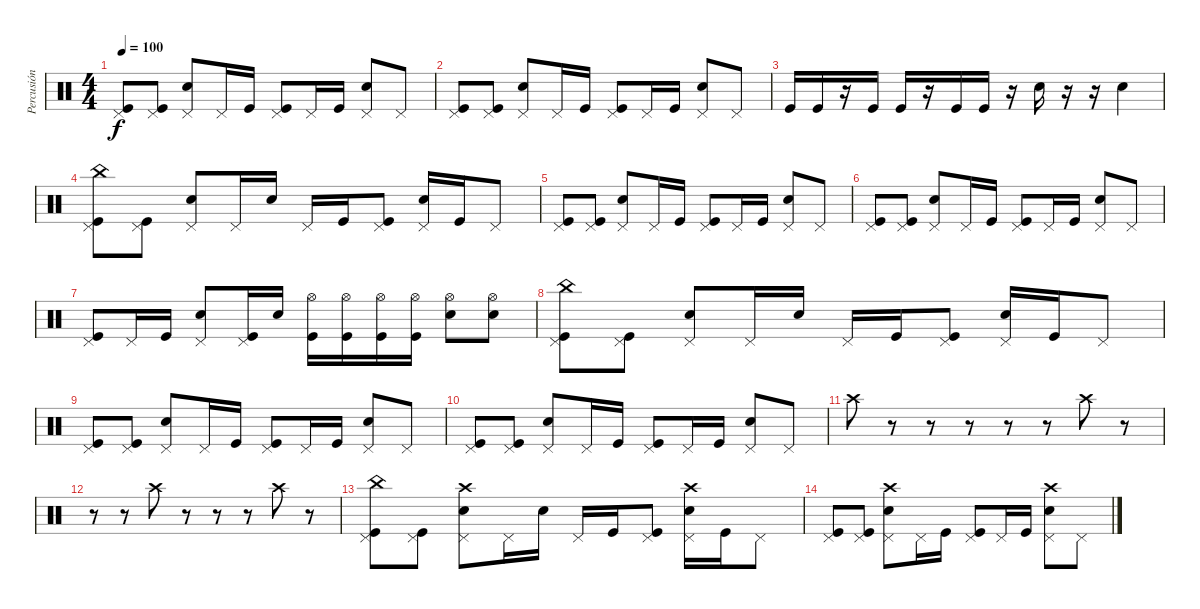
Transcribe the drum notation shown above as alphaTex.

\track ("Percusión" "Percusión") {instrument percussion}
\staff {score}
\articulation defaults
\ts (4 4)
\tempo 100
\clef neutral
\ks c
("Kick (hit)" "Pedal Hi-Hat (hit)").8{dy f} ("Kick (hit)" "Pedal Hi-Hat (hit)").8 ("Electric Snare (hit)" "Pedal Hi-Hat (hit)").8 "Pedal Hi-Hat (hit)".16 "Kick (hit)".16 ("Kick (hit)" "Pedal Hi-Hat (hit)").8 "Pedal Hi-Hat (hit)".16 "Kick (hit)".16 ("Electric Snare (hit)" "Pedal Hi-Hat (hit)").8 "Pedal Hi-Hat (hit)".8 |
("Kick (hit)" "Pedal Hi-Hat (hit)").8 ("Kick (hit)" "Pedal Hi-Hat (hit)").8 ("Electric Snare (hit)" "Pedal Hi-Hat (hit)").8 "Pedal Hi-Hat (hit)".16 "Kick (hit)".16 ("Kick (hit)" "Pedal Hi-Hat (hit)").8 "Pedal Hi-Hat (hit)".16 "Kick (hit)".16 ("Electric Snare (hit)" "Pedal Hi-Hat (hit)").8 "Pedal Hi-Hat (hit)".8 |
"Kick (hit)".16 "Kick (hit)".16 r.16 "Kick (hit)".16 "Kick (hit)".16 r.16 "Kick (hit)".16 "Kick (hit)".16 r.16 "Electric Snare (hit)".16 r.16 r.16 "Electric Snare (hit)".4 |
("Kick (hit)" "China (hit)" "Pedal Hi-Hat (hit)").8 ("Kick (hit)" "Pedal Hi-Hat (hit)").8 ("Electric Snare (hit)" "Pedal Hi-Hat (hit)").8 "Pedal Hi-Hat (hit)".16 "Electric Snare (hit)".16 "Pedal Hi-Hat (hit)".16 "Kick (hit)".16 ("Kick (hit)" "Pedal Hi-Hat (hit)").8 ("Electric Snare (hit)" "Pedal Hi-Hat (hit)").16 "Kick (hit)".16 "Pedal Hi-Hat (hit)".8 |
("Kick (hit)" "Pedal Hi-Hat (hit)").8 ("Kick (hit)" "Pedal Hi-Hat (hit)").8 ("Electric Snare (hit)" "Pedal Hi-Hat (hit)").8 "Pedal Hi-Hat (hit)".16 "Kick (hit)".16 ("Kick (hit)" "Pedal Hi-Hat (hit)").8 "Pedal Hi-Hat (hit)".16 "Kick (hit)".16 ("Electric Snare (hit)" "Pedal Hi-Hat (hit)").8 "Pedal Hi-Hat (hit)".8 |
("Kick (hit)" "Pedal Hi-Hat (hit)").8 ("Kick (hit)" "Pedal Hi-Hat (hit)").8 ("Electric Snare (hit)" "Pedal Hi-Hat (hit)").8 "Pedal Hi-Hat (hit)".16 "Kick (hit)".16 ("Kick (hit)" "Pedal Hi-Hat (hit)").8 "Pedal Hi-Hat (hit)".16 "Kick (hit)".16 ("Electric Snare (hit)" "Pedal Hi-Hat (hit)").8 "Pedal Hi-Hat (hit)".8 |
("Kick (hit)" "Pedal Hi-Hat (hit)").8 "Pedal Hi-Hat (hit)".16 "Kick (hit)".16 ("Electric Snare (hit)" "Pedal Hi-Hat (hit)").8 ("Kick (hit)" "Pedal Hi-Hat (hit)").16 "Electric Snare (hit)".16 ("Kick (hit)" "Hi-Hat (open)").16 ("Kick (hit)" "Hi-Hat (open)").16 ("Kick (hit)" "Hi-Hat (open)").16 ("Kick (hit)" "Hi-Hat (open)").16 ("Electric Snare (hit)" "Hi-Hat (open)").8 ("Electric Snare (hit)" "Hi-Hat (open)").8 |
("Kick (hit)" "China (hit)" "Pedal Hi-Hat (hit)").8 ("Kick (hit)" "Pedal Hi-Hat (hit)").8 ("Electric Snare (hit)" "Pedal Hi-Hat (hit)").8 "Pedal Hi-Hat (hit)".16 "Electric Snare (hit)".16 "Pedal Hi-Hat (hit)".16 "Kick (hit)".16 ("Kick (hit)" "Pedal Hi-Hat (hit)").8 ("Electric Snare (hit)" "Pedal Hi-Hat (hit)").16 "Kick (hit)".16 "Pedal Hi-Hat (hit)".8 |
("Kick (hit)" "Pedal Hi-Hat (hit)").8 ("Kick (hit)" "Pedal Hi-Hat (hit)").8 ("Electric Snare (hit)" "Pedal Hi-Hat (hit)").8 "Pedal Hi-Hat (hit)".16 "Kick (hit)".16 ("Kick (hit)" "Pedal Hi-Hat (hit)").8 "Pedal Hi-Hat (hit)".16 "Kick (hit)".16 ("Electric Snare (hit)" "Pedal Hi-Hat (hit)").8 "Pedal Hi-Hat (hit)".8 |
("Kick (hit)" "Pedal Hi-Hat (hit)").8 ("Kick (hit)" "Pedal Hi-Hat (hit)").8 ("Electric Snare (hit)" "Pedal Hi-Hat (hit)").8 "Pedal Hi-Hat (hit)".16 "Kick (hit)".16 ("Kick (hit)" "Pedal Hi-Hat (hit)").8 "Pedal Hi-Hat (hit)".16 "Kick (hit)".16 ("Electric Snare (hit)" "Pedal Hi-Hat (hit)").8 "Pedal Hi-Hat (hit)".8 |
"Crash high (hit)".8{volume 0} r.8 r.8 r.8 r.8 r.8 "Crash high (hit)".8 r.8 |
r.8 r.8 "Crash high (hit)".8 r.8 r.8 r.8 "Crash high (hit)".8 r.8 |
("Kick (hit)" "China (hit)" "Pedal Hi-Hat (hit)").8 ("Kick (hit)" "Pedal Hi-Hat (hit)").8 ("Electric Snare (hit)" "Crash high (hit)" "Pedal Hi-Hat (hit)").8 "Pedal Hi-Hat (hit)".16 "Electric Snare (hit)".16 "Pedal Hi-Hat (hit)".16 "Kick (hit)".16 ("Kick (hit)" "Pedal Hi-Hat (hit)").8 ("Electric Snare (hit)" "Crash high (hit)" "Pedal Hi-Hat (hit)").16 "Kick (hit)".16 "Pedal Hi-Hat (hit)".8 |
("Kick (hit)" "Pedal Hi-Hat (hit)").8 ("Kick (hit)" "Pedal Hi-Hat (hit)").8 ("Electric Snare (hit)" "Crash high (hit)" "Pedal Hi-Hat (hit)").8 "Pedal Hi-Hat (hit)".16 "Kick (hit)".16 ("Kick (hit)" "Pedal Hi-Hat (hit)").8 "Pedal Hi-Hat (hit)".16 "Kick (hit)".16 ("Electric Snare (hit)" "Crash high (hit)" "Pedal Hi-Hat (hit)").8 "Pedal Hi-Hat (hit)".8
